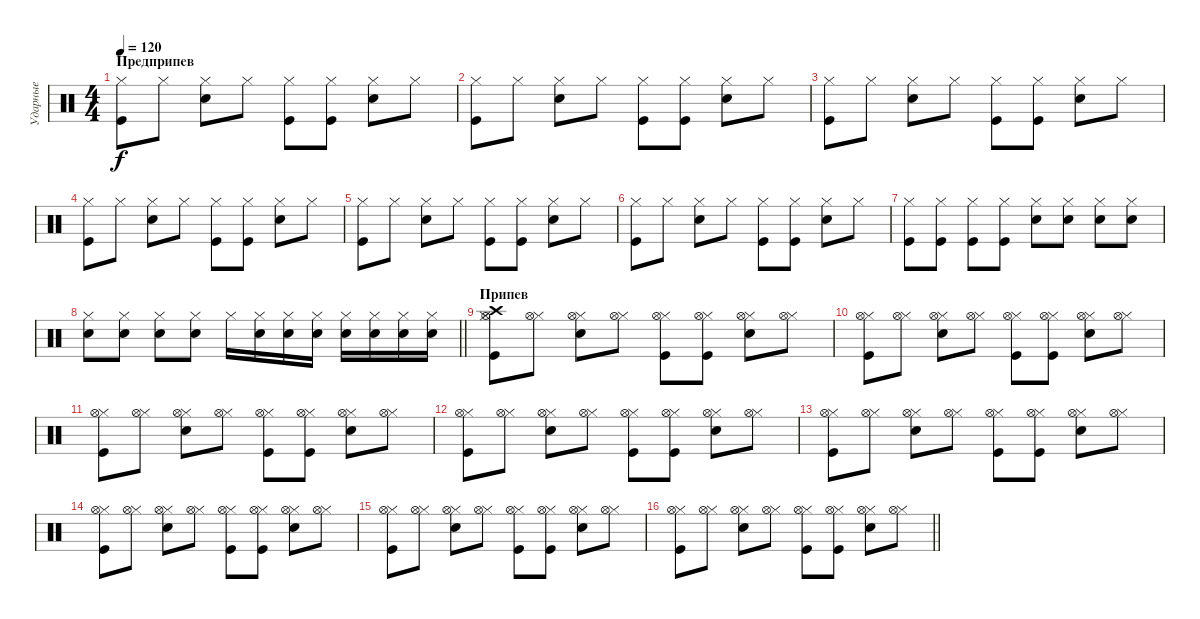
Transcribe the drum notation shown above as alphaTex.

\track ("Ударные" "Ударные") {instrument percussion}
\staff {score}
\articulation defaults
\ts (4 4)
\section ("" "Предприпев")
\tempo 120
\clef neutral
\ks c
("Hi-Hat (closed)" "Kick (hit)").8{dy f} "Hi-Hat (closed)".8 ("Hi-Hat (closed)" "Snare (hit) 2").8 "Hi-Hat (closed)".8 ("Hi-Hat (closed)" "Kick (hit)").8 ("Hi-Hat (closed)" "Kick (hit)").8 ("Hi-Hat (closed)" "Snare (hit) 2").8 "Hi-Hat (closed)".8 |
("Hi-Hat (closed)" "Kick (hit)").8 "Hi-Hat (closed)".8 ("Hi-Hat (closed)" "Snare (hit) 2").8 "Hi-Hat (closed)".8 ("Hi-Hat (closed)" "Kick (hit)").8 ("Hi-Hat (closed)" "Kick (hit)").8 ("Hi-Hat (closed)" "Snare (hit) 2").8 "Hi-Hat (closed)".8 |
("Hi-Hat (closed)" "Kick (hit)").8 "Hi-Hat (closed)".8 ("Hi-Hat (closed)" "Snare (hit) 2").8 "Hi-Hat (closed)".8 ("Hi-Hat (closed)" "Kick (hit)").8 ("Hi-Hat (closed)" "Kick (hit)").8 ("Hi-Hat (closed)" "Snare (hit) 2").8 "Hi-Hat (closed)".8 |
("Hi-Hat (closed)" "Kick (hit)").8 "Hi-Hat (closed)".8 ("Hi-Hat (closed)" "Snare (hit) 2").8 "Hi-Hat (closed)".8 ("Hi-Hat (closed)" "Kick (hit)").8 ("Hi-Hat (closed)" "Kick (hit)").8 ("Hi-Hat (closed)" "Snare (hit) 2").8 "Hi-Hat (closed)".8 |
("Hi-Hat (closed)" "Kick (hit)").8 "Hi-Hat (closed)".8 ("Hi-Hat (closed)" "Snare (hit) 2").8 "Hi-Hat (closed)".8 ("Hi-Hat (closed)" "Kick (hit)").8 ("Hi-Hat (closed)" "Kick (hit)").8 ("Hi-Hat (closed)" "Snare (hit) 2").8 "Hi-Hat (closed)".8 |
("Hi-Hat (closed)" "Kick (hit)").8 "Hi-Hat (closed)".8 ("Hi-Hat (closed)" "Snare (hit) 2").8 "Hi-Hat (closed)".8 ("Hi-Hat (closed)" "Kick (hit)").8 ("Hi-Hat (closed)" "Kick (hit)").8 ("Hi-Hat (closed)" "Snare (hit) 2").8 "Hi-Hat (closed)".8 |
("Hi-Hat (closed)" "Kick (hit)").8 ("Hi-Hat (closed)" "Kick (hit)").8 ("Hi-Hat (closed)" "Kick (hit)").8 ("Hi-Hat (closed)" "Kick (hit)").8 ("Hi-Hat (closed)" "Snare (hit) 2").8 ("Hi-Hat (closed)" "Snare (hit) 2").8 ("Hi-Hat (closed)" "Snare (hit) 2").8 ("Hi-Hat (closed)" "Snare (hit) 2").8 |
\barLineRight lightlight
("Hi-Hat (closed)" "Snare (hit) 2").8 ("Hi-Hat (closed)" "Snare (hit) 2").8 ("Hi-Hat (closed)" "Snare (hit) 2").8 ("Hi-Hat (closed)" "Snare (hit) 2").8 "Hi-Hat (closed)".16 ("Hi-Hat (closed)" "Snare (hit) 2").16 ("Hi-Hat (closed)" "Snare (hit) 2").16 ("Hi-Hat (closed)" "Snare (hit) 2").16 ("Hi-Hat (closed)" "Snare (hit) 2").16 ("Hi-Hat (closed)" "Snare (hit) 2").16 ("Hi-Hat (closed)" "Snare (hit) 2").16 ("Hi-Hat (closed)" "Snare (hit) 2").16 |
\section ("" "Припев")
("Hi-Hat (closed)" "Kick (hit)" "Crash high (hit)" "Hi-Hat (open)").8 ("Hi-Hat (closed)" "Hi-Hat (open)").8 ("Hi-Hat (closed)" "Snare (hit) 2" "Hi-Hat (open)").8 ("Hi-Hat (closed)" "Hi-Hat (open)").8 ("Hi-Hat (closed)" "Kick (hit)" "Hi-Hat (open)").8 ("Hi-Hat (closed)" "Kick (hit)" "Hi-Hat (open)").8 ("Hi-Hat (closed)" "Snare (hit) 2" "Hi-Hat (open)").8 ("Hi-Hat (closed)" "Hi-Hat (open)").8 |
("Hi-Hat (closed)" "Kick (hit)" "Hi-Hat (open)").8 ("Hi-Hat (closed)" "Hi-Hat (open)").8 ("Hi-Hat (closed)" "Snare (hit) 2" "Hi-Hat (open)").8 ("Hi-Hat (closed)" "Hi-Hat (open)").8 ("Hi-Hat (closed)" "Kick (hit)" "Hi-Hat (open)").8 ("Hi-Hat (closed)" "Kick (hit)" "Hi-Hat (open)").8 ("Hi-Hat (closed)" "Snare (hit) 2" "Hi-Hat (open)").8 ("Hi-Hat (closed)" "Hi-Hat (open)").8 |
("Hi-Hat (closed)" "Kick (hit)" "Hi-Hat (open)").8 ("Hi-Hat (closed)" "Hi-Hat (open)").8 ("Hi-Hat (closed)" "Snare (hit) 2" "Hi-Hat (open)").8 ("Hi-Hat (closed)" "Hi-Hat (open)").8 ("Hi-Hat (closed)" "Kick (hit)" "Hi-Hat (open)").8 ("Hi-Hat (closed)" "Kick (hit)" "Hi-Hat (open)").8 ("Hi-Hat (closed)" "Snare (hit) 2" "Hi-Hat (open)").8 ("Hi-Hat (closed)" "Hi-Hat (open)").8 |
("Hi-Hat (closed)" "Kick (hit)" "Hi-Hat (open)").8 ("Hi-Hat (closed)" "Hi-Hat (open)").8 ("Hi-Hat (closed)" "Snare (hit) 2" "Hi-Hat (open)").8 ("Hi-Hat (closed)" "Hi-Hat (open)").8 ("Hi-Hat (closed)" "Kick (hit)" "Hi-Hat (open)").8 ("Hi-Hat (closed)" "Kick (hit)" "Hi-Hat (open)").8 ("Hi-Hat (closed)" "Snare (hit) 2" "Hi-Hat (open)").8 ("Hi-Hat (closed)" "Hi-Hat (open)").8 |
("Hi-Hat (closed)" "Kick (hit)" "Hi-Hat (open)").8 ("Hi-Hat (closed)" "Hi-Hat (open)").8 ("Hi-Hat (closed)" "Snare (hit) 2" "Hi-Hat (open)").8 ("Hi-Hat (closed)" "Hi-Hat (open)").8 ("Hi-Hat (closed)" "Kick (hit)" "Hi-Hat (open)").8 ("Hi-Hat (closed)" "Kick (hit)" "Hi-Hat (open)").8 ("Hi-Hat (closed)" "Snare (hit) 2" "Hi-Hat (open)").8 ("Hi-Hat (closed)" "Hi-Hat (open)").8 |
("Hi-Hat (closed)" "Kick (hit)" "Hi-Hat (open)").8 ("Hi-Hat (closed)" "Hi-Hat (open)").8 ("Hi-Hat (closed)" "Snare (hit) 2" "Hi-Hat (open)").8 ("Hi-Hat (closed)" "Hi-Hat (open)").8 ("Hi-Hat (closed)" "Kick (hit)" "Hi-Hat (open)").8 ("Hi-Hat (closed)" "Kick (hit)" "Hi-Hat (open)").8 ("Hi-Hat (closed)" "Snare (hit) 2" "Hi-Hat (open)").8 ("Hi-Hat (closed)" "Hi-Hat (open)").8 |
("Hi-Hat (closed)" "Kick (hit)" "Hi-Hat (open)").8 ("Hi-Hat (closed)" "Hi-Hat (open)").8 ("Hi-Hat (closed)" "Snare (hit) 2" "Hi-Hat (open)").8 ("Hi-Hat (closed)" "Hi-Hat (open)").8 ("Hi-Hat (closed)" "Kick (hit)" "Hi-Hat (open)").8 ("Hi-Hat (closed)" "Kick (hit)" "Hi-Hat (open)").8 ("Hi-Hat (closed)" "Snare (hit) 2" "Hi-Hat (open)").8 ("Hi-Hat (closed)" "Hi-Hat (open)").8 |
\barLineRight lightlight
("Hi-Hat (closed)" "Kick (hit)" "Hi-Hat (open)").8 ("Hi-Hat (closed)" "Hi-Hat (open)").8 ("Hi-Hat (closed)" "Snare (hit) 2" "Hi-Hat (open)").8 ("Hi-Hat (closed)" "Hi-Hat (open)").8 ("Hi-Hat (closed)" "Kick (hit)" "Hi-Hat (open)").8 ("Hi-Hat (closed)" "Kick (hit)" "Hi-Hat (open)").8 ("Hi-Hat (closed)" "Snare (hit) 2" "Hi-Hat (open)").8 ("Hi-Hat (closed)" "Hi-Hat (open)").8
